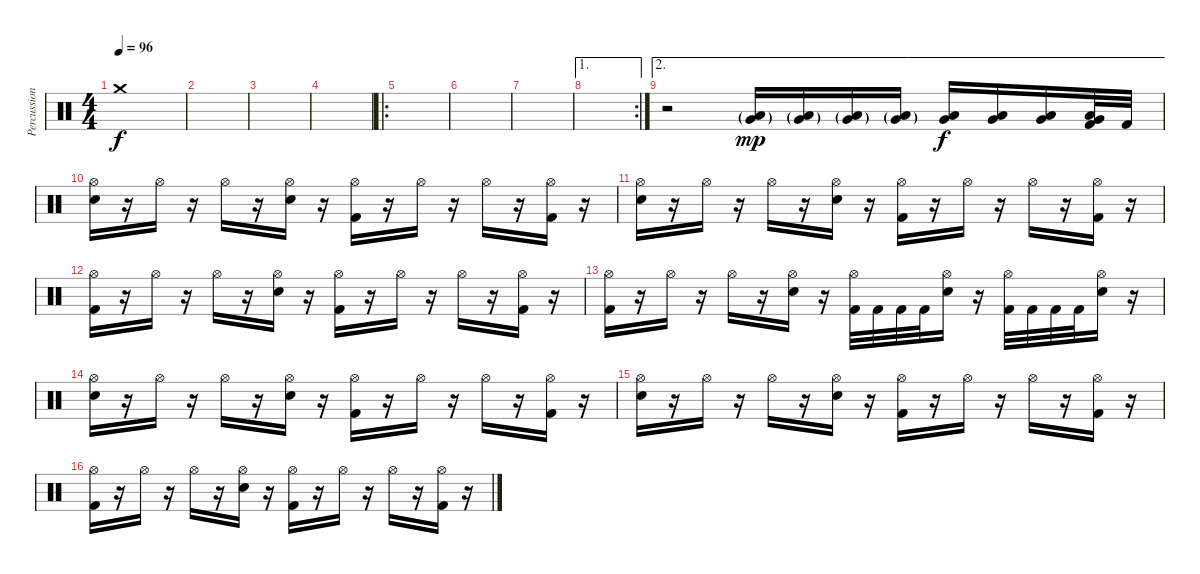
\track ("Percussion" "Percussion") {instrument percussion}
\staff {score}
\articulation defaults
\ts (4 4)
\tempo 96
\clef neutral
\ks c "Crash medium (hit)".1{dy f}
|
|
|
|
\ro
|
|
|
\ae 1
\rc 2
|
\ae 2
r.2 ("Very Low Tom (hit)"{g} "Low Floor Tom (hit)"{g}).16{dy mp} ("Very Low Tom (hit)"{g} "Low Floor Tom (hit)"{g}).16 ("Very Low Tom (hit)"{g} "Low Floor Tom (hit)"{g}).16 ("Very Low Tom (hit)"{g} "Low Floor Tom (hit)"{g}).16 ("Very Low Tom (hit)" "Low Floor Tom (hit)").16{dy f} ("Very Low Tom (hit)" "Low Floor Tom (hit)").16 ("Very Low Tom (hit)" "Low Floor Tom (hit)").16 ("Very Low Tom (hit)" "Low Floor Tom (hit)" "Kick (hit) 2").32 "Kick (hit) 2".32 |
("Hi-Hat (open)" "Electric Snare (hit)").16 r.16 "Hi-Hat (open)".16 r.16 "Hi-Hat (open)".16 r.16 ("Hi-Hat (open)" "Electric Snare (hit)").16 r.16 ("Hi-Hat (open)" "Kick (hit) 2").16 r.16 "Hi-Hat (open)".16 r.16 "Hi-Hat (open)".16 r.16 ("Hi-Hat (open)" "Kick (hit) 2").16 r.16 |
("Hi-Hat (open)" "Electric Snare (hit)").16 r.16 "Hi-Hat (open)".16 r.16 "Hi-Hat (open)".16 r.16 ("Hi-Hat (open)" "Electric Snare (hit)").16 r.16 ("Hi-Hat (open)" "Kick (hit) 2").16 r.16 "Hi-Hat (open)".16 r.16 "Hi-Hat (open)".16 r.16 ("Hi-Hat (open)" "Kick (hit) 2").16 r.16 |
("Hi-Hat (open)" "Kick (hit) 2").16 r.16 "Hi-Hat (open)".16 r.16 "Hi-Hat (open)".16 r.16 ("Hi-Hat (open)" "Electric Snare (hit)").16 r.16 ("Hi-Hat (open)" "Kick (hit) 2").16 r.16 "Hi-Hat (open)".16 r.16 "Hi-Hat (open)".16 r.16 ("Hi-Hat (open)" "Kick (hit) 2").16 r.16 |
("Hi-Hat (open)" "Kick (hit) 2").16 r.16 "Hi-Hat (open)".16 r.16 "Hi-Hat (open)".16 r.16 ("Hi-Hat (open)" "Electric Snare (hit)").16 r.16 ("Hi-Hat (open)" "Kick (hit) 2").32 "Kick (hit) 2".32 "Kick (hit) 2".32 "Kick (hit) 2".32 ("Hi-Hat (open)" "Electric Snare (hit)").16 r.16 ("Hi-Hat (open)" "Kick (hit) 2").32 "Kick (hit) 2".32 "Kick (hit) 2".32 "Kick (hit) 2".32 ("Hi-Hat (open)" "Electric Snare (hit)").16 r.16 |
("Hi-Hat (open)" "Electric Snare (hit)").16 r.16 "Hi-Hat (open)".16 r.16 "Hi-Hat (open)".16 r.16 ("Hi-Hat (open)" "Electric Snare (hit)").16 r.16 ("Hi-Hat (open)" "Kick (hit) 2").16 r.16 "Hi-Hat (open)".16 r.16 "Hi-Hat (open)".16 r.16 ("Hi-Hat (open)" "Kick (hit) 2").16 r.16 |
("Hi-Hat (open)" "Electric Snare (hit)").16 r.16 "Hi-Hat (open)".16 r.16 "Hi-Hat (open)".16 r.16 ("Hi-Hat (open)" "Electric Snare (hit)").16 r.16 ("Hi-Hat (open)" "Kick (hit) 2").16 r.16 "Hi-Hat (open)".16 r.16 "Hi-Hat (open)".16 r.16 ("Hi-Hat (open)" "Kick (hit) 2").16 r.16 |
("Hi-Hat (open)" "Kick (hit) 2").16 r.16 "Hi-Hat (open)".16 r.16 "Hi-Hat (open)".16 r.16 ("Hi-Hat (open)" "Electric Snare (hit)").16 r.16 ("Hi-Hat (open)" "Kick (hit) 2").16 r.16 "Hi-Hat (open)".16 r.16 "Hi-Hat (open)".16 r.16 ("Hi-Hat (open)" "Kick (hit) 2").16 r.16
